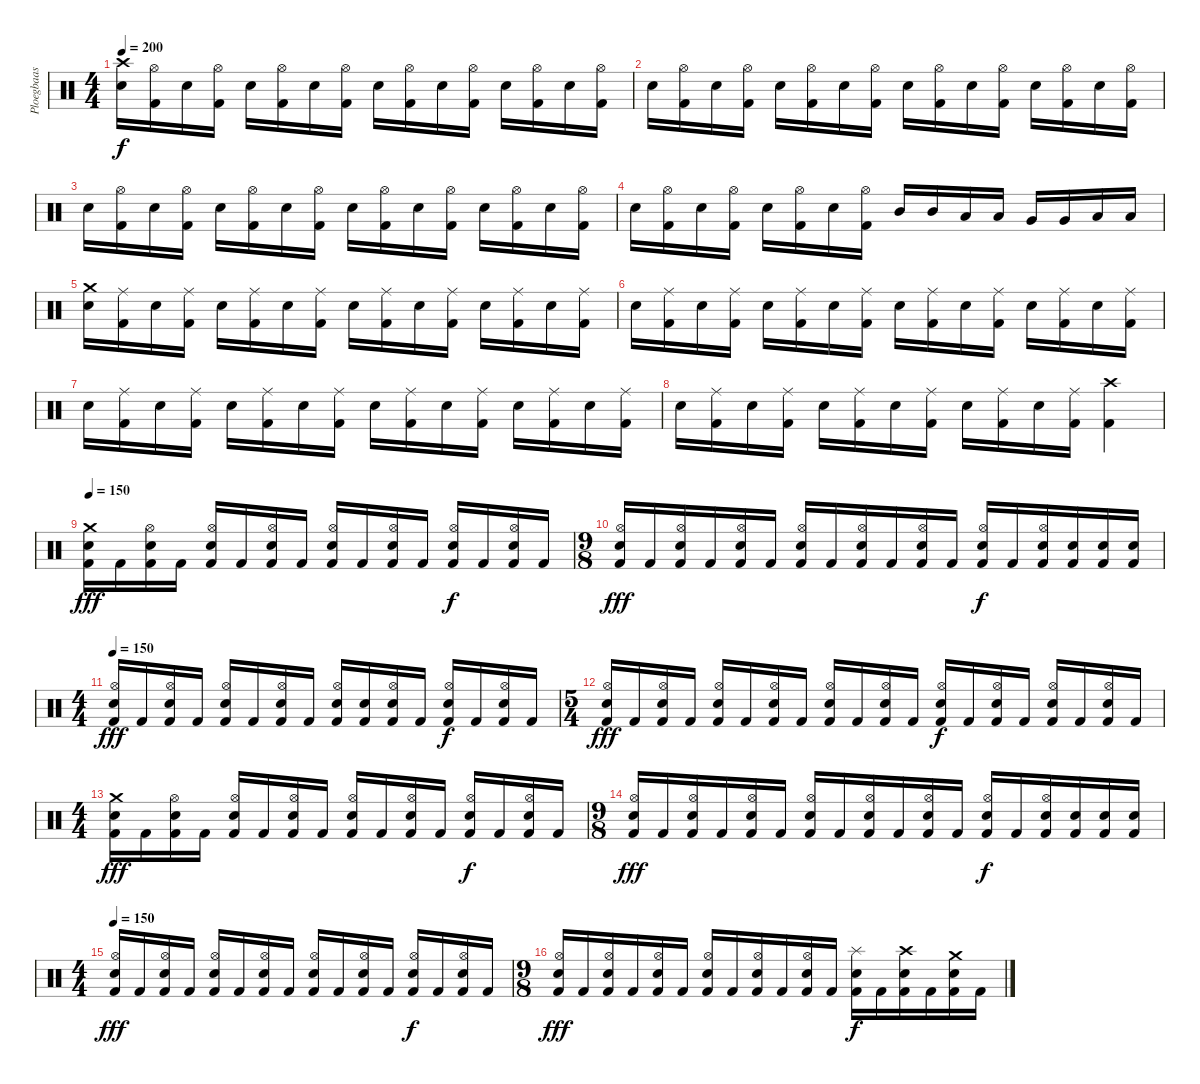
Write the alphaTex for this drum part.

\track ("Ploegbaas" "Ploegbaas") {instrument percussion}
\staff {score}
\articulation defaults
\ts (4 4)
\tempo 200
\clef neutral
\ks c
("Crash high (hit)" "Electric Snare (hit)").16{dy f} ("Hi-Hat (open)" "Kick (hit) 2").16 "Electric Snare (hit)".16 ("Hi-Hat (open)" "Kick (hit) 2").16 "Electric Snare (hit)".16 ("Hi-Hat (open)" "Kick (hit) 2").16 "Electric Snare (hit)".16 ("Hi-Hat (open)" "Kick (hit) 2").16 "Electric Snare (hit)".16 ("Hi-Hat (open)" "Kick (hit) 2").16 "Electric Snare (hit)".16 ("Hi-Hat (open)" "Kick (hit) 2").16 "Electric Snare (hit)".16 ("Hi-Hat (open)" "Kick (hit) 2").16 "Electric Snare (hit)".16 ("Hi-Hat (open)" "Kick (hit) 2").16 |
"Electric Snare (hit)".16 ("Hi-Hat (open)" "Kick (hit) 2").16 "Electric Snare (hit)".16 ("Hi-Hat (open)" "Kick (hit) 2").16 "Electric Snare (hit)".16 ("Hi-Hat (open)" "Kick (hit) 2").16 "Electric Snare (hit)".16 ("Hi-Hat (open)" "Kick (hit) 2").16 "Electric Snare (hit)".16 ("Hi-Hat (open)" "Kick (hit) 2").16 "Electric Snare (hit)".16 ("Hi-Hat (open)" "Kick (hit) 2").16 "Electric Snare (hit)".16 ("Hi-Hat (open)" "Kick (hit) 2").16 "Electric Snare (hit)".16 ("Hi-Hat (open)" "Kick (hit) 2").16 |
"Electric Snare (hit)".16 ("Hi-Hat (open)" "Kick (hit) 2").16 "Electric Snare (hit)".16 ("Hi-Hat (open)" "Kick (hit) 2").16 "Electric Snare (hit)".16 ("Hi-Hat (open)" "Kick (hit) 2").16 "Electric Snare (hit)".16 ("Hi-Hat (open)" "Kick (hit) 2").16 "Electric Snare (hit)".16 ("Hi-Hat (open)" "Kick (hit) 2").16 "Electric Snare (hit)".16 ("Hi-Hat (open)" "Kick (hit) 2").16 "Electric Snare (hit)".16 ("Hi-Hat (open)" "Kick (hit) 2").16 "Electric Snare (hit)".16 ("Hi-Hat (open)" "Kick (hit) 2").16 |
"Electric Snare (hit)".16 ("Hi-Hat (open)" "Kick (hit) 2").16 "Electric Snare (hit)".16 ("Hi-Hat (open)" "Kick (hit) 2").16 "Electric Snare (hit)".16 ("Hi-Hat (open)" "Kick (hit) 2").16 "Electric Snare (hit)".16 ("Hi-Hat (open)" "Kick (hit) 2").16 "Mid Tom (hit)".16 "Mid Tom (hit)".16 "Low Tom (hit)".16 "Low Tom (hit)".16 "Very Low Tom (hit)".16 "Very Low Tom (hit)".16 "Low Floor Tom (hit)".16 "Low Floor Tom (hit)".16 |
("Crash medium (hit)" "Electric Snare (hit)").16 ("Ride (middle)" "Kick (hit) 2").16 "Electric Snare (hit)".16 ("Ride (middle)" "Kick (hit) 2").16 "Electric Snare (hit)".16 ("Ride (middle)" "Kick (hit) 2").16 "Electric Snare (hit)".16 ("Ride (middle)" "Kick (hit) 2").16 "Electric Snare (hit)".16 ("Ride (middle)" "Kick (hit) 2").16 "Electric Snare (hit)".16 ("Ride (middle)" "Kick (hit) 2").16 "Electric Snare (hit)".16 ("Ride (middle)" "Kick (hit) 2").16 "Electric Snare (hit)".16 ("Ride (middle)" "Kick (hit) 2").16 |
"Electric Snare (hit)".16 ("Ride (middle)" "Kick (hit) 2").16 "Electric Snare (hit)".16 ("Ride (middle)" "Kick (hit) 2").16 "Electric Snare (hit)".16 ("Ride (middle)" "Kick (hit) 2").16 "Electric Snare (hit)".16 ("Ride (middle)" "Kick (hit) 2").16 "Electric Snare (hit)".16 ("Ride (middle)" "Kick (hit) 2").16 "Electric Snare (hit)".16 ("Ride (middle)" "Kick (hit) 2").16 "Electric Snare (hit)".16 ("Ride (middle)" "Kick (hit) 2").16 "Electric Snare (hit)".16 ("Ride (middle)" "Kick (hit) 2").16 |
"Electric Snare (hit)".16 ("Ride (middle)" "Kick (hit) 2").16 "Electric Snare (hit)".16 ("Ride (middle)" "Kick (hit) 2").16 "Electric Snare (hit)".16 ("Ride (middle)" "Kick (hit) 2").16 "Electric Snare (hit)".16 ("Ride (middle)" "Kick (hit) 2").16 "Electric Snare (hit)".16 ("Ride (middle)" "Kick (hit) 2").16 "Electric Snare (hit)".16 ("Ride (middle)" "Kick (hit) 2").16 "Electric Snare (hit)".16 ("Ride (middle)" "Kick (hit) 2").16 "Electric Snare (hit)".16 ("Ride (middle)" "Kick (hit) 2").16 |
"Electric Snare (hit)".16 ("Ride (middle)" "Kick (hit) 2").16 "Electric Snare (hit)".16 ("Ride (middle)" "Kick (hit) 2").16 "Electric Snare (hit)".16 ("Ride (middle)" "Kick (hit) 2").16 "Electric Snare (hit)".16 ("Ride (middle)" "Kick (hit) 2").16 "Electric Snare (hit)".16 ("Ride (middle)" "Kick (hit) 2").16 "Electric Snare (hit)".16 ("Ride (middle)" "Kick (hit) 2").16 ("Crash high (hit)" "Kick (hit) 2").4 |
\tempo 150
("Crash medium (hit)" "Electric Snare (hit)" "Kick (hit) 2").16{dy fff} "Kick (hit) 2".16 ("Hi-Hat (open)" "Electric Snare (hit)" "Kick (hit) 2").16 "Kick (hit) 2".16 ("Hi-Hat (open)" "Electric Snare (hit)" "Kick (hit) 2").16 "Kick (hit) 2".16 ("Hi-Hat (open)" "Electric Snare (hit)" "Kick (hit) 2").16 "Kick (hit) 2".16 ("Hi-Hat (open)" "Electric Snare (hit)" "Kick (hit) 2").16 "Kick (hit) 2".16 ("Hi-Hat (open)" "Electric Snare (hit)" "Kick (hit) 2").16 "Kick (hit) 2".16 ("Hi-Hat (open)" "Electric Snare (hit)" "Kick (hit) 2").16{dy f} "Kick (hit) 2".16 ("Hi-Hat (open)" "Electric Snare (hit)" "Kick (hit) 2").16 "Kick (hit) 2".16 |
\ts (9 8)
("Hi-Hat (open)" "Electric Snare (hit)" "Kick (hit) 2").16{dy fff} "Kick (hit) 2".16 ("Hi-Hat (open)" "Electric Snare (hit)" "Kick (hit) 2").16 "Kick (hit) 2".16 ("Hi-Hat (open)" "Electric Snare (hit)" "Kick (hit) 2").16 "Kick (hit) 2".16 ("Hi-Hat (open)" "Electric Snare (hit)" "Kick (hit) 2").16 "Kick (hit) 2".16 ("Hi-Hat (open)" "Electric Snare (hit)" "Kick (hit) 2").16 "Kick (hit) 2".16 ("Hi-Hat (open)" "Electric Snare (hit)" "Kick (hit) 2").16 "Kick (hit) 2".16 ("Hi-Hat (open)" "Electric Snare (hit)" "Kick (hit) 2").16{dy f} "Kick (hit) 2".16 ("Hi-Hat (open)" "Electric Snare (hit)" "Kick (hit) 2").16 ("Electric Snare (hit)" "Kick (hit) 2").16 ("Electric Snare (hit)" "Kick (hit) 2").16 ("Electric Snare (hit)" "Kick (hit) 2").16 |
\ts (4 4)
\tempo 150
("Hi-Hat (open)" "Electric Snare (hit)" "Kick (hit) 2").16{dy fff} "Kick (hit) 2".16 ("Hi-Hat (open)" "Electric Snare (hit)" "Kick (hit) 2").16 "Kick (hit) 2".16 ("Hi-Hat (open)" "Electric Snare (hit)" "Kick (hit) 2").16 "Kick (hit) 2".16 ("Hi-Hat (open)" "Electric Snare (hit)" "Kick (hit) 2").16 "Kick (hit) 2".16 ("Hi-Hat (open)" "Electric Snare (hit)" "Kick (hit) 2").16 ("Electric Snare (hit)" "Kick (hit) 2").16 ("Hi-Hat (open)" "Electric Snare (hit)" "Kick (hit) 2").16 "Kick (hit) 2".16 ("Hi-Hat (open)" "Electric Snare (hit)" "Kick (hit) 2").16{dy f} "Kick (hit) 2".16 ("Hi-Hat (open)" "Electric Snare (hit)" "Kick (hit) 2").16 "Kick (hit) 2".16 |
\ts (5 4)
("Hi-Hat (open)" "Electric Snare (hit)" "Kick (hit) 2").16{dy fff} "Kick (hit) 2".16 ("Hi-Hat (open)" "Electric Snare (hit)" "Kick (hit) 2").16 "Kick (hit) 2".16 ("Hi-Hat (open)" "Electric Snare (hit)" "Kick (hit) 2").16 "Kick (hit) 2".16 ("Hi-Hat (open)" "Electric Snare (hit)" "Kick (hit) 2").16 "Kick (hit) 2".16 ("Hi-Hat (open)" "Electric Snare (hit)" "Kick (hit) 2").16 "Kick (hit) 2".16 ("Hi-Hat (open)" "Electric Snare (hit)" "Kick (hit) 2").16 "Kick (hit) 2".16 ("Hi-Hat (open)" "Electric Snare (hit)" "Kick (hit) 2").16{dy f} "Kick (hit) 2".16 ("Hi-Hat (open)" "Electric Snare (hit)" "Kick (hit) 2").16 "Kick (hit) 2".16 ("Hi-Hat (open)" "Electric Snare (hit)" "Kick (hit) 2").16 "Kick (hit) 2".16 ("Hi-Hat (open)" "Electric Snare (hit)" "Kick (hit) 2").16 "Kick (hit) 2".16 |
\ts (4 4)
("Crash medium (hit)" "Electric Snare (hit)" "Kick (hit) 2").16{dy fff} "Kick (hit) 2".16 ("Hi-Hat (open)" "Electric Snare (hit)" "Kick (hit) 2").16 "Kick (hit) 2".16 ("Hi-Hat (open)" "Electric Snare (hit)" "Kick (hit) 2").16 "Kick (hit) 2".16 ("Hi-Hat (open)" "Electric Snare (hit)" "Kick (hit) 2").16 "Kick (hit) 2".16 ("Hi-Hat (open)" "Electric Snare (hit)" "Kick (hit) 2").16 "Kick (hit) 2".16 ("Hi-Hat (open)" "Electric Snare (hit)" "Kick (hit) 2").16 "Kick (hit) 2".16 ("Hi-Hat (open)" "Electric Snare (hit)" "Kick (hit) 2").16{dy f} "Kick (hit) 2".16 ("Hi-Hat (open)" "Electric Snare (hit)" "Kick (hit) 2").16 "Kick (hit) 2".16 |
\ts (9 8)
("Hi-Hat (open)" "Electric Snare (hit)" "Kick (hit) 2").16{dy fff} "Kick (hit) 2".16 ("Hi-Hat (open)" "Electric Snare (hit)" "Kick (hit) 2").16 "Kick (hit) 2".16 ("Hi-Hat (open)" "Electric Snare (hit)" "Kick (hit) 2").16 "Kick (hit) 2".16 ("Hi-Hat (open)" "Electric Snare (hit)" "Kick (hit) 2").16 "Kick (hit) 2".16 ("Hi-Hat (open)" "Electric Snare (hit)" "Kick (hit) 2").16 "Kick (hit) 2".16 ("Hi-Hat (open)" "Electric Snare (hit)" "Kick (hit) 2").16 "Kick (hit) 2".16 ("Hi-Hat (open)" "Electric Snare (hit)" "Kick (hit) 2").16{dy f} "Kick (hit) 2".16 ("Hi-Hat (open)" "Electric Snare (hit)" "Kick (hit) 2").16 ("Electric Snare (hit)" "Kick (hit) 2").16 ("Electric Snare (hit)" "Kick (hit) 2").16 ("Electric Snare (hit)" "Kick (hit) 2").16 |
\ts (4 4)
\tempo 150
("Hi-Hat (open)" "Electric Snare (hit)" "Kick (hit) 2").16{dy fff} "Kick (hit) 2".16 ("Hi-Hat (open)" "Electric Snare (hit)" "Kick (hit) 2").16 "Kick (hit) 2".16 ("Hi-Hat (open)" "Electric Snare (hit)" "Kick (hit) 2").16 "Kick (hit) 2".16 ("Hi-Hat (open)" "Electric Snare (hit)" "Kick (hit) 2").16 "Kick (hit) 2".16 ("Hi-Hat (open)" "Electric Snare (hit)" "Kick (hit) 2").16 "Kick (hit) 2".16 ("Hi-Hat (open)" "Electric Snare (hit)" "Kick (hit) 2").16 "Kick (hit) 2".16 ("Hi-Hat (open)" "Electric Snare (hit)" "Kick (hit) 2").16{dy f} "Kick (hit) 2".16 ("Hi-Hat (open)" "Electric Snare (hit)" "Kick (hit) 2").16 "Kick (hit) 2".16 |
\ts (9 8)
("Hi-Hat (open)" "Electric Snare (hit)" "Kick (hit) 2").16{dy fff} "Kick (hit) 2".16 ("Hi-Hat (open)" "Electric Snare (hit)" "Kick (hit) 2").16 "Kick (hit) 2".16 ("Hi-Hat (open)" "Electric Snare (hit)" "Kick (hit) 2").16 "Kick (hit) 2".16 ("Hi-Hat (open)" "Electric Snare (hit)" "Kick (hit) 2").16 "Kick (hit) 2".16 ("Hi-Hat (open)" "Electric Snare (hit)" "Kick (hit) 2").16 "Kick (hit) 2".16 ("Hi-Hat (open)" "Electric Snare (hit)" "Kick (hit) 2").16 "Kick (hit) 2".16 ("Splash (hit)" "Electric Snare (hit)" "Kick (hit) 2").16{dy f} "Kick (hit) 2".16 ("Crash high (hit)" "Electric Snare (hit)" "Kick (hit) 2").16 "Kick (hit) 2".16 ("Crash medium (hit)" "Electric Snare (hit)" "Kick (hit) 2").16 "Kick (hit) 2".16
